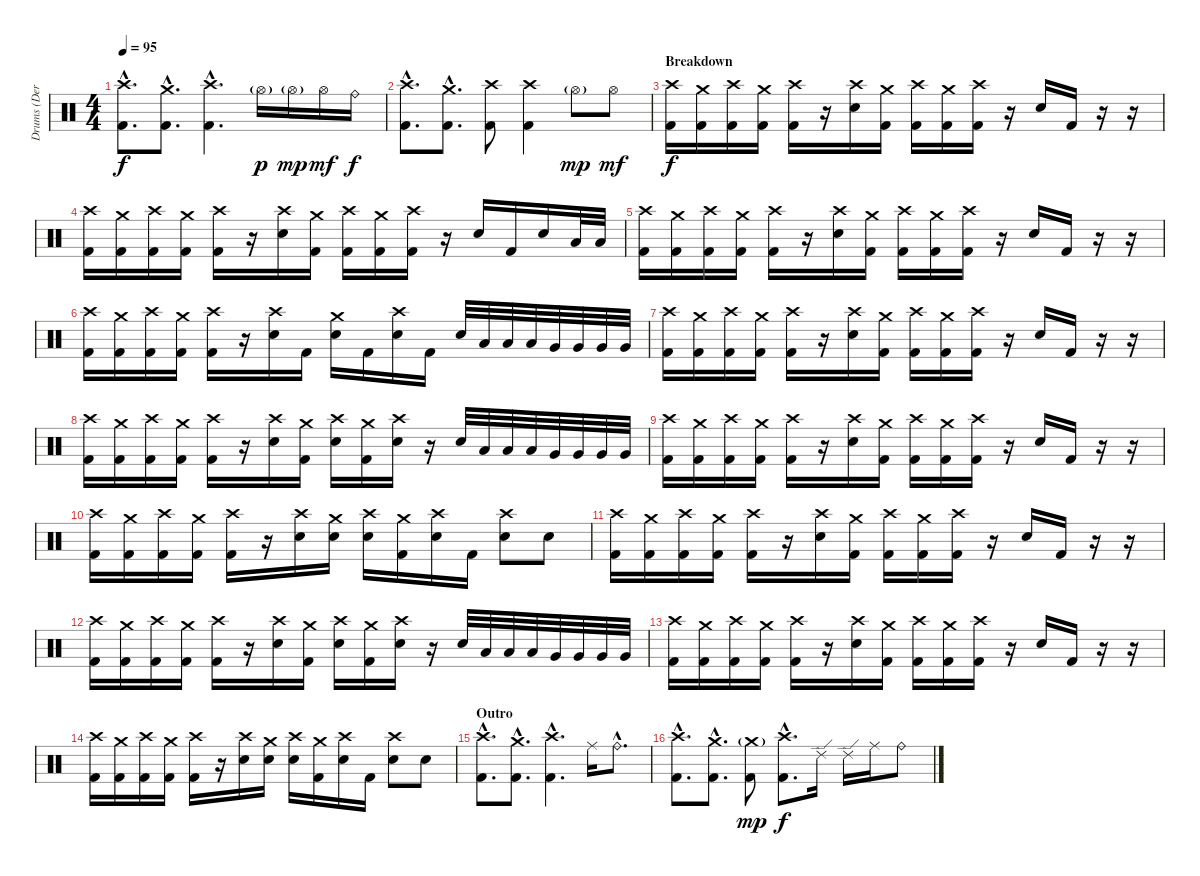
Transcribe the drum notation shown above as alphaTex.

\track ("Drums (Derek Bloom)" "Drums (Der") {instrument percussion}
\staff {score}
\articulation defaults
\ts (4 4)
\tempo 95
\clef neutral
\ks c
("Crash high (hit)"{hac} "Kick (hit) 2"{hac}).8{d dy f} ("Crash medium (hit)"{hac} "Kick (hit) 2"{hac}).8{d} ("Crash high (hit)"{hac} "Kick (hit) 2"{hac}).4{d} "Hi-Hat (open)"{g}.16{dy p} "Hi-Hat (open)"{g}.16{dy mp} "Hi-Hat (open)".16{dy mf} "Ride (bell)".16{dy f} |
("Crash high (hit)"{hac} "Kick (hit) 2"{hac}).8{d} ("Crash medium (hit)"{hac} "Kick (hit) 2"{hac}).8{d} ("Crash high (hit)" "Kick (hit) 2").8 ("Crash high (hit)" "Kick (hit) 2").4 "Hi-Hat (open)"{g}.8{dy mp} "Hi-Hat (open)".8{dy mf} |
\section ("" "Breakdown")
("Crash high (hit)" "Kick (hit) 2").16{dy f} ("Crash medium (hit)" "Kick (hit) 2").16 ("Crash high (hit)" "Kick (hit) 2").16 ("Crash medium (hit)" "Kick (hit) 2").16 ("Crash high (hit)" "Kick (hit) 2").16 r.16 ("Crash high (hit)" "Electric Snare (hit)").16 ("Crash medium (hit)" "Kick (hit) 2").16 ("Crash high (hit)" "Kick (hit) 2").16 ("Crash medium (hit)" "Kick (hit) 2").16 ("Crash high (hit)" "Kick (hit) 2").16 r.16 "Electric Snare (hit)".16 "Kick (hit) 2".16 r.16 r.16 |
("Crash high (hit)" "Kick (hit) 2").16 ("Crash medium (hit)" "Kick (hit) 2").16 ("Crash high (hit)" "Kick (hit) 2").16 ("Crash medium (hit)" "Kick (hit) 2").16 ("Crash high (hit)" "Kick (hit) 2").16 r.16 ("Crash high (hit)" "Electric Snare (hit)").16 ("Crash medium (hit)" "Kick (hit) 2").16 ("Crash high (hit)" "Kick (hit) 2").16 ("Crash medium (hit)" "Kick (hit) 2").16 ("Crash high (hit)" "Kick (hit) 2").16 r.16 "Electric Snare (hit)".16 "Kick (hit) 2".16 "Electric Snare (hit)".16 "Low Tom (hit)".32 "Low Tom (hit)".32 |
("Crash high (hit)" "Kick (hit) 2").16 ("Crash medium (hit)" "Kick (hit) 2").16 ("Crash high (hit)" "Kick (hit) 2").16 ("Crash medium (hit)" "Kick (hit) 2").16 ("Crash high (hit)" "Kick (hit) 2").16 r.16 ("Crash high (hit)" "Electric Snare (hit)").16 ("Crash medium (hit)" "Kick (hit) 2").16 ("Crash high (hit)" "Kick (hit) 2").16 ("Crash medium (hit)" "Kick (hit) 2").16 ("Crash high (hit)" "Kick (hit) 2").16 r.16 "Electric Snare (hit)".16 "Kick (hit) 2".16 r.16 r.16 |
("Crash high (hit)" "Kick (hit) 2").16 ("Crash medium (hit)" "Kick (hit) 2").16 ("Crash high (hit)" "Kick (hit) 2").16 ("Crash medium (hit)" "Kick (hit) 2").16 ("Crash high (hit)" "Kick (hit) 2").16 r.16 ("Crash high (hit)" "Electric Snare (hit)").16 "Kick (hit) 2".16 ("Crash medium (hit)" "Electric Snare (hit)").16 "Kick (hit) 2".16 ("Crash high (hit)" "Electric Snare (hit)").16 "Kick (hit) 2".16 "Electric Snare (hit)".32 "Low Tom (hit)".32 "Low Tom (hit)".32 "Low Tom (hit)".32 "Very Low Tom (hit)".32 "Very Low Tom (hit)".32 "Very Low Tom (hit)".32 "Very Low Tom (hit)".32 |
("Crash high (hit)" "Kick (hit) 2").16 ("Crash medium (hit)" "Kick (hit) 2").16 ("Crash high (hit)" "Kick (hit) 2").16 ("Crash medium (hit)" "Kick (hit) 2").16 ("Crash high (hit)" "Kick (hit) 2").16 r.16 ("Crash high (hit)" "Electric Snare (hit)").16 ("Crash medium (hit)" "Kick (hit) 2").16 ("Crash high (hit)" "Kick (hit) 2").16 ("Crash medium (hit)" "Kick (hit) 2").16 ("Crash high (hit)" "Kick (hit) 2").16 r.16 "Electric Snare (hit)".16 "Kick (hit) 2".16 r.16 r.16 |
("Crash high (hit)" "Kick (hit) 2").16 ("Crash medium (hit)" "Kick (hit) 2").16 ("Crash high (hit)" "Kick (hit) 2").16 ("Crash medium (hit)" "Kick (hit) 2").16 ("Crash high (hit)" "Kick (hit) 2").16 r.16 ("Crash high (hit)" "Electric Snare (hit)").16 ("Crash medium (hit)" "Kick (hit) 2").16 ("Crash high (hit)" "Electric Snare (hit)").16 ("Crash medium (hit)" "Kick (hit) 2").16 ("Crash high (hit)" "Electric Snare (hit)").16 r.16 "Electric Snare (hit)".32 "Low Tom (hit)".32 "Low Tom (hit)".32 "Low Tom (hit)".32 "Very Low Tom (hit)".32 "Very Low Tom (hit)".32 "Very Low Tom (hit)".32 "Very Low Tom (hit)".32 |
("Crash high (hit)" "Kick (hit) 2").16 ("Crash medium (hit)" "Kick (hit) 2").16 ("Crash high (hit)" "Kick (hit) 2").16 ("Crash medium (hit)" "Kick (hit) 2").16 ("Crash high (hit)" "Kick (hit) 2").16 r.16 ("Crash high (hit)" "Electric Snare (hit)").16 ("Crash medium (hit)" "Kick (hit) 2").16 ("Crash high (hit)" "Kick (hit) 2").16 ("Crash medium (hit)" "Kick (hit) 2").16 ("Crash high (hit)" "Kick (hit) 2").16 r.16 "Electric Snare (hit)".16 "Kick (hit) 2".16 r.16 r.16 |
("Crash high (hit)" "Kick (hit) 2").16 ("Crash medium (hit)" "Kick (hit) 2").16 ("Crash high (hit)" "Kick (hit) 2").16 ("Crash medium (hit)" "Kick (hit) 2").16 ("Crash high (hit)" "Kick (hit) 2").16 r.16 ("Crash high (hit)" "Electric Snare (hit)").16 ("Crash medium (hit)" "Electric Snare (hit)").16 ("Crash high (hit)" "Electric Snare (hit)").16 ("Crash medium (hit)" "Kick (hit) 2").16 ("Crash high (hit)" "Electric Snare (hit)").16 "Kick (hit) 2".16 ("Crash high (hit)" "Electric Snare (hit)").8 "Electric Snare (hit)".8 |
("Crash high (hit)" "Kick (hit) 2").16 ("Crash medium (hit)" "Kick (hit) 2").16 ("Crash high (hit)" "Kick (hit) 2").16 ("Crash medium (hit)" "Kick (hit) 2").16 ("Crash high (hit)" "Kick (hit) 2").16 r.16 ("Crash high (hit)" "Electric Snare (hit)").16 ("Crash medium (hit)" "Kick (hit) 2").16 ("Crash high (hit)" "Kick (hit) 2").16 ("Crash medium (hit)" "Kick (hit) 2").16 ("Crash high (hit)" "Kick (hit) 2").16 r.16 "Electric Snare (hit)".16 "Kick (hit) 2".16 r.16 r.16 |
("Crash high (hit)" "Kick (hit) 2").16 ("Crash medium (hit)" "Kick (hit) 2").16 ("Crash high (hit)" "Kick (hit) 2").16 ("Crash medium (hit)" "Kick (hit) 2").16 ("Crash high (hit)" "Kick (hit) 2").16 r.16 ("Crash high (hit)" "Electric Snare (hit)").16 ("Crash medium (hit)" "Kick (hit) 2").16 ("Crash high (hit)" "Electric Snare (hit)").16 ("Crash medium (hit)" "Kick (hit) 2").16 ("Crash high (hit)" "Electric Snare (hit)").16 r.16 "Electric Snare (hit)".32 "Low Tom (hit)".32 "Low Tom (hit)".32 "Low Tom (hit)".32 "Very Low Tom (hit)".32 "Very Low Tom (hit)".32 "Very Low Tom (hit)".32 "Very Low Tom (hit)".32 |
("Crash high (hit)" "Kick (hit) 2").16 ("Crash medium (hit)" "Kick (hit) 2").16 ("Crash high (hit)" "Kick (hit) 2").16 ("Crash medium (hit)" "Kick (hit) 2").16 ("Crash high (hit)" "Kick (hit) 2").16 r.16 ("Crash high (hit)" "Electric Snare (hit)").16 ("Crash medium (hit)" "Kick (hit) 2").16 ("Crash high (hit)" "Kick (hit) 2").16 ("Crash medium (hit)" "Kick (hit) 2").16 ("Crash high (hit)" "Kick (hit) 2").16 r.16 "Electric Snare (hit)".16 "Kick (hit) 2".16 r.16 r.16 |
("Crash high (hit)" "Kick (hit) 2").16 ("Crash medium (hit)" "Kick (hit) 2").16 ("Crash high (hit)" "Kick (hit) 2").16 ("Crash medium (hit)" "Kick (hit) 2").16 ("Crash high (hit)" "Kick (hit) 2").16 r.16 ("Crash high (hit)" "Electric Snare (hit)").16 ("Crash medium (hit)" "Electric Snare (hit)").16 ("Crash high (hit)" "Electric Snare (hit)").16 ("Crash medium (hit)" "Kick (hit) 2").16 ("Crash high (hit)" "Electric Snare (hit)").16 "Kick (hit) 2".16 ("Crash high (hit)" "Electric Snare (hit)").8 "Electric Snare (hit)".8 |
\section ("" "Outro")
("Crash high (hit)"{hac} "Kick (hit) 2"{hac}).8{d} ("Crash medium (hit)"{hac} "Kick (hit) 2"{hac}).8{d} ("Crash high (hit)"{hac} "Kick (hit) 2"{hac}).4{d} "Ride (middle)".16 "Ride (bell)"{hac}.8{d} |
("Crash high (hit)"{hac} "Kick (hit) 2"{hac}).8{d} ("Crash medium (hit)"{hac} "Kick (hit) 2"{hac}).8{d} ("Crash medium (hit)"{g} "Kick (hit) 2").8{dy mp} ("Crash high (hit)"{hac} "Kick (hit) 2"{hac}).8{d dy f} "Ride (edge) 2".16 "Ride (edge) 2".16 "Ride (middle)".16 "Ride (bell)".8
